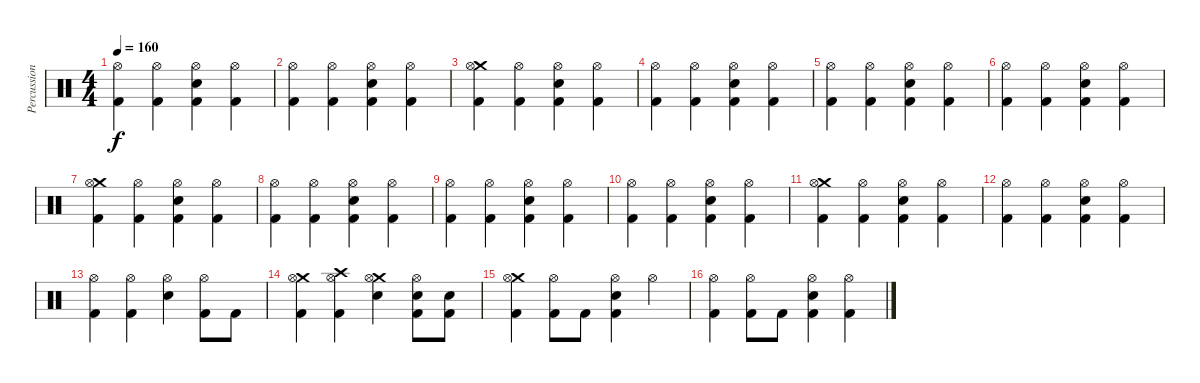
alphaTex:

\track ("Percussion" "Percussion") {instrument percussion}
\staff {score}
\articulation defaults
\ts (4 4)
\tempo 160
\clef neutral
\ks c
("Hi-Hat (open)" "Kick (hit) 2").4{dy f} ("Hi-Hat (open)" "Kick (hit) 2").4 ("Hi-Hat (open)" "Electric Snare (hit)" "Kick (hit) 2").4 ("Hi-Hat (open)" "Kick (hit) 2").4 |
("Hi-Hat (open)" "Kick (hit) 2").4 ("Hi-Hat (open)" "Kick (hit) 2").4 ("Hi-Hat (open)" "Electric Snare (hit)" "Kick (hit) 2").4 ("Hi-Hat (open)" "Kick (hit) 2").4 |
("Crash medium (hit)" "Hi-Hat (open)" "Kick (hit) 2").4 ("Hi-Hat (open)" "Kick (hit) 2").4 ("Hi-Hat (open)" "Electric Snare (hit)" "Kick (hit) 2").4 ("Hi-Hat (open)" "Kick (hit) 2").4 |
("Hi-Hat (open)" "Kick (hit) 2").4 ("Hi-Hat (open)" "Kick (hit) 2").4 ("Hi-Hat (open)" "Electric Snare (hit)" "Kick (hit) 2").4 ("Hi-Hat (open)" "Kick (hit) 2").4 |
("Hi-Hat (open)" "Kick (hit) 2").4 ("Hi-Hat (open)" "Kick (hit) 2").4 ("Hi-Hat (open)" "Electric Snare (hit)" "Kick (hit) 2").4 ("Hi-Hat (open)" "Kick (hit) 2").4 |
("Hi-Hat (open)" "Kick (hit) 2").4 ("Hi-Hat (open)" "Kick (hit) 2").4 ("Hi-Hat (open)" "Electric Snare (hit)" "Kick (hit) 2").4 ("Hi-Hat (open)" "Kick (hit) 2").4 |
("Crash medium (hit)" "Hi-Hat (open)" "Kick (hit) 2").4 ("Hi-Hat (open)" "Kick (hit) 2").4 ("Hi-Hat (open)" "Electric Snare (hit)" "Kick (hit) 2").4 ("Hi-Hat (open)" "Kick (hit) 2").4 |
("Hi-Hat (open)" "Kick (hit) 2").4 ("Hi-Hat (open)" "Kick (hit) 2").4 ("Hi-Hat (open)" "Electric Snare (hit)" "Kick (hit) 2").4 ("Hi-Hat (open)" "Kick (hit) 2").4 |
("Hi-Hat (open)" "Kick (hit) 2").4 ("Hi-Hat (open)" "Kick (hit) 2").4 ("Hi-Hat (open)" "Electric Snare (hit)" "Kick (hit) 2").4 ("Hi-Hat (open)" "Kick (hit) 2").4 |
("Hi-Hat (open)" "Kick (hit) 2").4 ("Hi-Hat (open)" "Kick (hit) 2").4 ("Hi-Hat (open)" "Electric Snare (hit)" "Kick (hit) 2").4 ("Hi-Hat (open)" "Kick (hit) 2").4 |
("Crash medium (hit)" "Hi-Hat (open)" "Kick (hit) 2").4 ("Hi-Hat (open)" "Kick (hit) 2").4 ("Hi-Hat (open)" "Electric Snare (hit)" "Kick (hit) 2").4 ("Hi-Hat (open)" "Kick (hit) 2").4 |
("Hi-Hat (open)" "Kick (hit) 2").4 ("Hi-Hat (open)" "Kick (hit) 2").4 ("Hi-Hat (open)" "Electric Snare (hit)" "Kick (hit) 2").4 ("Hi-Hat (open)" "Kick (hit) 2").4 |
("Hi-Hat (open)" "Kick (hit) 2").4 ("Hi-Hat (open)" "Kick (hit) 2").4 ("Hi-Hat (open)" "Electric Snare (hit)").4 ("Hi-Hat (open)" "Kick (hit) 2").8 "Kick (hit) 2".8 |
("Crash medium (hit)" "Hi-Hat (open)" "Kick (hit) 2").4 ("Crash high (hit)" "Hi-Hat (open)" "Kick (hit) 2").4 ("Crash medium (hit)" "Hi-Hat (open)" "Electric Snare (hit)").4 ("Hi-Hat (open)" "Electric Snare (hit)" "Kick (hit) 2").8 ("Electric Snare (hit)" "Kick (hit) 2").8 |
("Crash medium (hit)" "Hi-Hat (open)" "Kick (hit) 2").4 ("Hi-Hat (open)" "Kick (hit) 2").8 "Kick (hit) 2".8 ("Hi-Hat (open)" "Electric Snare (hit)" "Kick (hit) 2").4 "Hi-Hat (open)".4 |
("Hi-Hat (open)" "Kick (hit) 2").4 ("Hi-Hat (open)" "Kick (hit) 2").8 "Kick (hit) 2".8 ("Hi-Hat (open)" "Electric Snare (hit)" "Kick (hit) 2").4 ("Hi-Hat (open)" "Kick (hit) 2").4
